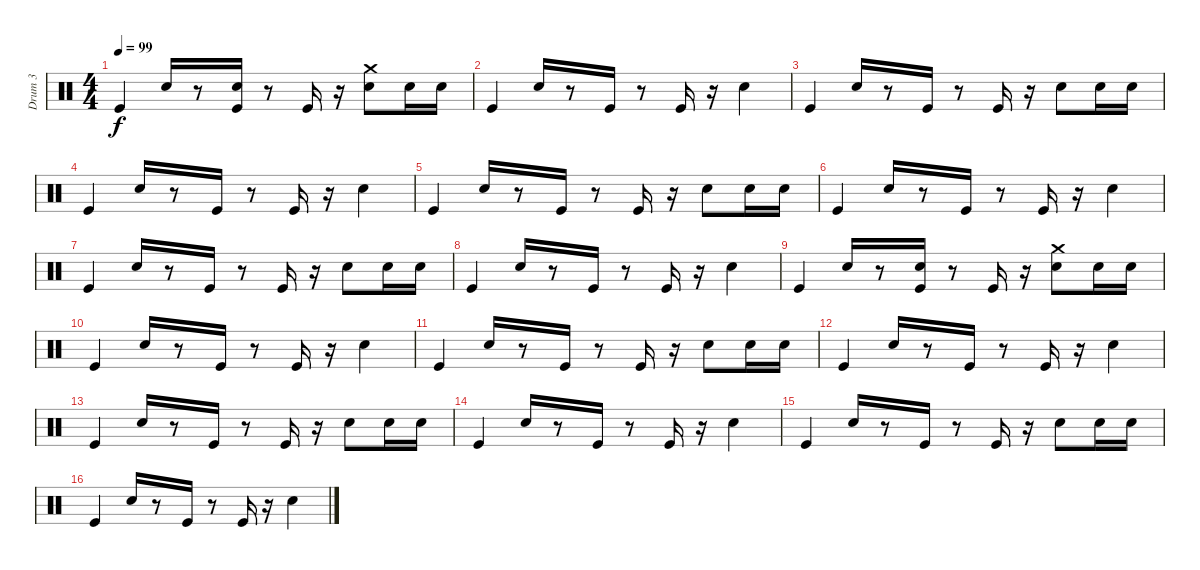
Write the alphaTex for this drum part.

\track ("Drum 3" "Drum 3") {instrument percussion}
\staff {score}
\articulation defaults
\ts (4 4)
\tempo 99
\clef neutral
\ks c "Kick (hit)".4{dy f} "Snare (hit) 2".16
r.8 ("Snare (hit) 2" "Kick (hit)").16 r.8 "Kick (hit)".16 r.16 ("Crash medium (hit)" "Snare (hit) 2").8 "Snare (hit) 2".16 "Snare (hit) 2".16 |
"Kick (hit)".4 "Snare (hit) 2".16 r.8 "Kick (hit)".16 r.8 "Kick (hit)".16 r.16 "Snare (hit) 2".4 |
"Kick (hit)".4 "Snare (hit) 2".16 r.8 "Kick (hit)".16 r.8 "Kick (hit)".16 r.16 "Snare (hit) 2".8 "Snare (hit) 2".16 "Snare (hit) 2".16 |
"Kick (hit)".4 "Snare (hit) 2".16 r.8 "Kick (hit)".16 r.8 "Kick (hit)".16 r.16 "Snare (hit) 2".4 |
"Kick (hit)".4 "Snare (hit) 2".16 r.8 "Kick (hit)".16 r.8 "Kick (hit)".16 r.16 "Snare (hit) 2".8 "Snare (hit) 2".16 "Snare (hit) 2".16 |
"Kick (hit)".4 "Snare (hit) 2".16 r.8 "Kick (hit)".16 r.8 "Kick (hit)".16 r.16 "Snare (hit) 2".4 |
"Kick (hit)".4 "Snare (hit) 2".16 r.8 "Kick (hit)".16 r.8 "Kick (hit)".16 r.16 "Snare (hit) 2".8 "Snare (hit) 2".16 "Snare (hit) 2".16 |
"Kick (hit)".4 "Snare (hit) 2".16 r.8 "Kick (hit)".16 r.8 "Kick (hit)".16 r.16 "Snare (hit) 2".4 |
"Kick (hit)".4 "Snare (hit) 2".16 r.8 ("Snare (hit) 2" "Kick (hit)").16 r.8 "Kick (hit)".16 r.16 ("Crash medium (hit)" "Snare (hit) 2").8 "Snare (hit) 2".16 "Snare (hit) 2".16 |
"Kick (hit)".4 "Snare (hit) 2".16 r.8 "Kick (hit)".16 r.8 "Kick (hit)".16 r.16 "Snare (hit) 2".4 |
"Kick (hit)".4 "Snare (hit) 2".16 r.8 "Kick (hit)".16 r.8 "Kick (hit)".16 r.16 "Snare (hit) 2".8 "Snare (hit) 2".16 "Snare (hit) 2".16 |
"Kick (hit)".4 "Snare (hit) 2".16 r.8 "Kick (hit)".16 r.8 "Kick (hit)".16 r.16 "Snare (hit) 2".4 |
"Kick (hit)".4 "Snare (hit) 2".16 r.8 "Kick (hit)".16 r.8 "Kick (hit)".16 r.16 "Snare (hit) 2".8 "Snare (hit) 2".16 "Snare (hit) 2".16 |
"Kick (hit)".4 "Snare (hit) 2".16 r.8 "Kick (hit)".16 r.8 "Kick (hit)".16 r.16 "Snare (hit) 2".4 |
"Kick (hit)".4 "Snare (hit) 2".16 r.8 "Kick (hit)".16 r.8 "Kick (hit)".16 r.16 "Snare (hit) 2".8 "Snare (hit) 2".16 "Snare (hit) 2".16 |
"Kick (hit)".4 "Snare (hit) 2".16 r.8 "Kick (hit)".16 r.8 "Kick (hit)".16 r.16 "Snare (hit) 2".4
